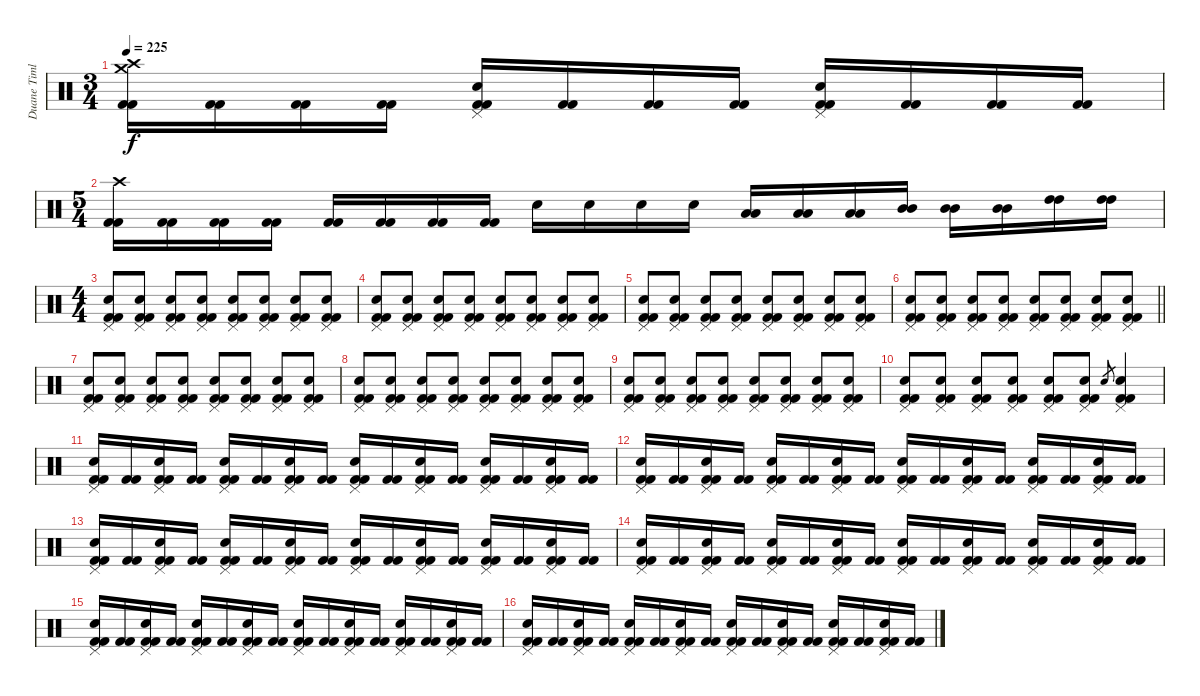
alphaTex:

\track ("Duane Timlin" "Duane Timl") {instrument percussion}
\staff {score}
\articulation defaults
\ts (3 4)
\tempo 225
\clef neutral
\ks c
("Crash medium (hit)" "Crash high (hit)" "Kick (hit) 2" "Kick (hit) 2").16{dy f} ("Kick (hit) 2" "Kick (hit) 2").16 ("Kick (hit) 2" "Kick (hit) 2").16 ("Kick (hit) 2" "Kick (hit) 2").16 ("Pedal Hi-Hat (hit)" "Electric Snare (hit)" "Kick (hit) 2" "Kick (hit) 2").16 ("Kick (hit) 2" "Kick (hit) 2").16 ("Kick (hit) 2" "Kick (hit) 2").16 ("Kick (hit) 2" "Kick (hit) 2").16 ("Pedal Hi-Hat (hit)" "Electric Snare (hit)" "Kick (hit) 2" "Kick (hit) 2").16 ("Kick (hit) 2" "Kick (hit) 2").16 ("Kick (hit) 2" "Kick (hit) 2").16 ("Kick (hit) 2" "Kick (hit) 2").16 |
\ts (5 4)
("Crash high (hit)" "Kick (hit) 2" "Kick (hit) 2").16 ("Kick (hit) 2" "Kick (hit) 2").16 ("Kick (hit) 2" "Kick (hit) 2").16 ("Kick (hit) 2" "Kick (hit) 2").16 ("Kick (hit) 2" "Kick (hit) 2").16 ("Kick (hit) 2" "Kick (hit) 2").16 ("Kick (hit) 2" "Kick (hit) 2").16 ("Kick (hit) 2" "Kick (hit) 2").16 "Electric Snare (hit)".16 "Electric Snare (hit)".16 "Electric Snare (hit)".16 "Electric Snare (hit)".16 ("Low Tom (hit)" "Low Tom (hit)").16 ("Low Tom (hit)" "Low Tom (hit)").16 ("Low Tom (hit)" "Low Tom (hit)").16 ("Mid Tom (hit)" "Mid Tom (hit)").16 ("Mid Tom (hit)" "Mid Tom (hit)").16 ("Mid Tom (hit)" "Mid Tom (hit)").16 ("High Tom (hit)" "High Tom (hit)").16 ("High Tom (hit)" "High Tom (hit)").16 |
\ts (4 4)
("Pedal Hi-Hat (hit)" "Electric Snare (hit)" "Kick (hit) 2" "Kick (hit) 2").8 ("Pedal Hi-Hat (hit)" "Electric Snare (hit)" "Kick (hit) 2" "Kick (hit) 2").8 ("Pedal Hi-Hat (hit)" "Electric Snare (hit)" "Kick (hit) 2" "Kick (hit) 2").8 ("Pedal Hi-Hat (hit)" "Electric Snare (hit)" "Kick (hit) 2" "Kick (hit) 2").8 ("Pedal Hi-Hat (hit)" "Electric Snare (hit)" "Kick (hit) 2" "Kick (hit) 2").8 ("Pedal Hi-Hat (hit)" "Electric Snare (hit)" "Kick (hit) 2" "Kick (hit) 2").8 ("Pedal Hi-Hat (hit)" "Electric Snare (hit)" "Kick (hit) 2" "Kick (hit) 2").8 ("Pedal Hi-Hat (hit)" "Electric Snare (hit)" "Kick (hit) 2" "Kick (hit) 2").8 |
("Pedal Hi-Hat (hit)" "Electric Snare (hit)" "Kick (hit) 2" "Kick (hit) 2").8 ("Pedal Hi-Hat (hit)" "Electric Snare (hit)" "Kick (hit) 2" "Kick (hit) 2").8 ("Pedal Hi-Hat (hit)" "Electric Snare (hit)" "Kick (hit) 2" "Kick (hit) 2").8 ("Pedal Hi-Hat (hit)" "Electric Snare (hit)" "Kick (hit) 2" "Kick (hit) 2").8 ("Pedal Hi-Hat (hit)" "Electric Snare (hit)" "Kick (hit) 2" "Kick (hit) 2").8 ("Pedal Hi-Hat (hit)" "Electric Snare (hit)" "Kick (hit) 2" "Kick (hit) 2").8 ("Pedal Hi-Hat (hit)" "Electric Snare (hit)" "Kick (hit) 2" "Kick (hit) 2").8 ("Pedal Hi-Hat (hit)" "Electric Snare (hit)" "Kick (hit) 2" "Kick (hit) 2").8 |
("Pedal Hi-Hat (hit)" "Electric Snare (hit)" "Kick (hit) 2" "Kick (hit) 2").8 ("Pedal Hi-Hat (hit)" "Electric Snare (hit)" "Kick (hit) 2" "Kick (hit) 2").8 ("Pedal Hi-Hat (hit)" "Electric Snare (hit)" "Kick (hit) 2" "Kick (hit) 2").8 ("Pedal Hi-Hat (hit)" "Electric Snare (hit)" "Kick (hit) 2" "Kick (hit) 2").8 ("Pedal Hi-Hat (hit)" "Electric Snare (hit)" "Kick (hit) 2" "Kick (hit) 2").8 ("Pedal Hi-Hat (hit)" "Electric Snare (hit)" "Kick (hit) 2" "Kick (hit) 2").8 ("Pedal Hi-Hat (hit)" "Electric Snare (hit)" "Kick (hit) 2" "Kick (hit) 2").8 ("Pedal Hi-Hat (hit)" "Electric Snare (hit)" "Kick (hit) 2" "Kick (hit) 2").8 |
\barLineRight lightlight
("Pedal Hi-Hat (hit)" "Electric Snare (hit)" "Kick (hit) 2" "Kick (hit) 2").8 ("Pedal Hi-Hat (hit)" "Electric Snare (hit)" "Kick (hit) 2" "Kick (hit) 2").8 ("Pedal Hi-Hat (hit)" "Electric Snare (hit)" "Kick (hit) 2" "Kick (hit) 2").8 ("Pedal Hi-Hat (hit)" "Electric Snare (hit)" "Kick (hit) 2" "Kick (hit) 2").8 ("Pedal Hi-Hat (hit)" "Electric Snare (hit)" "Kick (hit) 2" "Kick (hit) 2").8 ("Pedal Hi-Hat (hit)" "Electric Snare (hit)" "Kick (hit) 2" "Kick (hit) 2").8 ("Pedal Hi-Hat (hit)" "Electric Snare (hit)" "Kick (hit) 2" "Kick (hit) 2").8 ("Pedal Hi-Hat (hit)" "Electric Snare (hit)" "Kick (hit) 2" "Kick (hit) 2").8 |
("Pedal Hi-Hat (hit)" "Electric Snare (hit)" "Kick (hit) 2" "Kick (hit) 2").8 ("Pedal Hi-Hat (hit)" "Electric Snare (hit)" "Kick (hit) 2" "Kick (hit) 2").8 ("Pedal Hi-Hat (hit)" "Electric Snare (hit)" "Kick (hit) 2" "Kick (hit) 2").8 ("Pedal Hi-Hat (hit)" "Electric Snare (hit)" "Kick (hit) 2" "Kick (hit) 2").8 ("Pedal Hi-Hat (hit)" "Electric Snare (hit)" "Kick (hit) 2" "Kick (hit) 2").8 ("Pedal Hi-Hat (hit)" "Electric Snare (hit)" "Kick (hit) 2" "Kick (hit) 2").8 ("Pedal Hi-Hat (hit)" "Electric Snare (hit)" "Kick (hit) 2" "Kick (hit) 2").8 ("Pedal Hi-Hat (hit)" "Electric Snare (hit)" "Kick (hit) 2" "Kick (hit) 2").8 |
("Pedal Hi-Hat (hit)" "Electric Snare (hit)" "Kick (hit) 2" "Kick (hit) 2").8 ("Pedal Hi-Hat (hit)" "Electric Snare (hit)" "Kick (hit) 2" "Kick (hit) 2").8 ("Pedal Hi-Hat (hit)" "Electric Snare (hit)" "Kick (hit) 2" "Kick (hit) 2").8 ("Pedal Hi-Hat (hit)" "Electric Snare (hit)" "Kick (hit) 2" "Kick (hit) 2").8 ("Pedal Hi-Hat (hit)" "Electric Snare (hit)" "Kick (hit) 2" "Kick (hit) 2").8 ("Pedal Hi-Hat (hit)" "Electric Snare (hit)" "Kick (hit) 2" "Kick (hit) 2").8 ("Pedal Hi-Hat (hit)" "Electric Snare (hit)" "Kick (hit) 2" "Kick (hit) 2").8 ("Pedal Hi-Hat (hit)" "Electric Snare (hit)" "Kick (hit) 2" "Kick (hit) 2").8 |
("Pedal Hi-Hat (hit)" "Electric Snare (hit)" "Kick (hit) 2" "Kick (hit) 2").8 ("Pedal Hi-Hat (hit)" "Electric Snare (hit)" "Kick (hit) 2" "Kick (hit) 2").8 ("Pedal Hi-Hat (hit)" "Electric Snare (hit)" "Kick (hit) 2" "Kick (hit) 2").8 ("Pedal Hi-Hat (hit)" "Electric Snare (hit)" "Kick (hit) 2" "Kick (hit) 2").8 ("Pedal Hi-Hat (hit)" "Electric Snare (hit)" "Kick (hit) 2" "Kick (hit) 2").8 ("Pedal Hi-Hat (hit)" "Electric Snare (hit)" "Kick (hit) 2" "Kick (hit) 2").8 ("Pedal Hi-Hat (hit)" "Electric Snare (hit)" "Kick (hit) 2" "Kick (hit) 2").8 ("Pedal Hi-Hat (hit)" "Electric Snare (hit)" "Kick (hit) 2" "Kick (hit) 2").8 |
("Pedal Hi-Hat (hit)" "Electric Snare (hit)" "Kick (hit) 2" "Kick (hit) 2").8 ("Pedal Hi-Hat (hit)" "Electric Snare (hit)" "Kick (hit) 2" "Kick (hit) 2").8 ("Pedal Hi-Hat (hit)" "Electric Snare (hit)" "Kick (hit) 2" "Kick (hit) 2").8 ("Pedal Hi-Hat (hit)" "Electric Snare (hit)" "Kick (hit) 2" "Kick (hit) 2").8 ("Pedal Hi-Hat (hit)" "Electric Snare (hit)" "Kick (hit) 2" "Kick (hit) 2").8 ("Pedal Hi-Hat (hit)" "Electric Snare (hit)" "Kick (hit) 2" "Kick (hit) 2").8 "Electric Snare (hit)".8{gr} ("Pedal Hi-Hat (hit)" "Electric Snare (hit)" "Kick (hit) 2" "Kick (hit) 2").4 |
("Pedal Hi-Hat (hit)" "Electric Snare (hit)" "Kick (hit) 2" "Kick (hit) 2").16 ("Kick (hit) 2" "Kick (hit) 2").16 ("Pedal Hi-Hat (hit)" "Electric Snare (hit)" "Kick (hit) 2" "Kick (hit) 2").16 ("Kick (hit) 2" "Kick (hit) 2").16 ("Pedal Hi-Hat (hit)" "Electric Snare (hit)" "Kick (hit) 2" "Kick (hit) 2").16 ("Kick (hit) 2" "Kick (hit) 2").16 ("Pedal Hi-Hat (hit)" "Electric Snare (hit)" "Kick (hit) 2" "Kick (hit) 2").16 ("Kick (hit) 2" "Kick (hit) 2").16 ("Pedal Hi-Hat (hit)" "Electric Snare (hit)" "Kick (hit) 2" "Kick (hit) 2").16 ("Kick (hit) 2" "Kick (hit) 2").16 ("Pedal Hi-Hat (hit)" "Electric Snare (hit)" "Kick (hit) 2" "Kick (hit) 2").16 ("Kick (hit) 2" "Kick (hit) 2").16 ("Pedal Hi-Hat (hit)" "Electric Snare (hit)" "Kick (hit) 2" "Kick (hit) 2").16 ("Kick (hit) 2" "Kick (hit) 2").16 ("Pedal Hi-Hat (hit)" "Electric Snare (hit)" "Kick (hit) 2" "Kick (hit) 2").16 ("Kick (hit) 2" "Kick (hit) 2").16 |
("Pedal Hi-Hat (hit)" "Electric Snare (hit)" "Kick (hit) 2" "Kick (hit) 2").16 ("Kick (hit) 2" "Kick (hit) 2").16 ("Pedal Hi-Hat (hit)" "Electric Snare (hit)" "Kick (hit) 2" "Kick (hit) 2").16 ("Kick (hit) 2" "Kick (hit) 2").16 ("Pedal Hi-Hat (hit)" "Electric Snare (hit)" "Kick (hit) 2" "Kick (hit) 2").16 ("Kick (hit) 2" "Kick (hit) 2").16 ("Pedal Hi-Hat (hit)" "Electric Snare (hit)" "Kick (hit) 2" "Kick (hit) 2").16 ("Kick (hit) 2" "Kick (hit) 2").16 ("Pedal Hi-Hat (hit)" "Electric Snare (hit)" "Kick (hit) 2" "Kick (hit) 2").16 ("Kick (hit) 2" "Kick (hit) 2").16 ("Pedal Hi-Hat (hit)" "Electric Snare (hit)" "Kick (hit) 2" "Kick (hit) 2").16 ("Kick (hit) 2" "Kick (hit) 2").16 ("Pedal Hi-Hat (hit)" "Electric Snare (hit)" "Kick (hit) 2" "Kick (hit) 2").16 ("Kick (hit) 2" "Kick (hit) 2").16 ("Pedal Hi-Hat (hit)" "Electric Snare (hit)" "Kick (hit) 2" "Kick (hit) 2").16 ("Kick (hit) 2" "Kick (hit) 2").16 |
("Pedal Hi-Hat (hit)" "Electric Snare (hit)" "Kick (hit) 2" "Kick (hit) 2").16 ("Kick (hit) 2" "Kick (hit) 2").16 ("Pedal Hi-Hat (hit)" "Electric Snare (hit)" "Kick (hit) 2" "Kick (hit) 2").16 ("Kick (hit) 2" "Kick (hit) 2").16 ("Pedal Hi-Hat (hit)" "Electric Snare (hit)" "Kick (hit) 2" "Kick (hit) 2").16 ("Kick (hit) 2" "Kick (hit) 2").16 ("Pedal Hi-Hat (hit)" "Electric Snare (hit)" "Kick (hit) 2" "Kick (hit) 2").16 ("Kick (hit) 2" "Kick (hit) 2").16 ("Pedal Hi-Hat (hit)" "Electric Snare (hit)" "Kick (hit) 2" "Kick (hit) 2").16 ("Kick (hit) 2" "Kick (hit) 2").16 ("Pedal Hi-Hat (hit)" "Electric Snare (hit)" "Kick (hit) 2" "Kick (hit) 2").16 ("Kick (hit) 2" "Kick (hit) 2").16 ("Pedal Hi-Hat (hit)" "Electric Snare (hit)" "Kick (hit) 2" "Kick (hit) 2").16 ("Kick (hit) 2" "Kick (hit) 2").16 ("Pedal Hi-Hat (hit)" "Electric Snare (hit)" "Kick (hit) 2" "Kick (hit) 2").16 ("Kick (hit) 2" "Kick (hit) 2").16 |
("Pedal Hi-Hat (hit)" "Electric Snare (hit)" "Kick (hit) 2" "Kick (hit) 2").16 ("Kick (hit) 2" "Kick (hit) 2").16 ("Pedal Hi-Hat (hit)" "Electric Snare (hit)" "Kick (hit) 2" "Kick (hit) 2").16 ("Kick (hit) 2" "Kick (hit) 2").16 ("Pedal Hi-Hat (hit)" "Electric Snare (hit)" "Kick (hit) 2" "Kick (hit) 2").16 ("Kick (hit) 2" "Kick (hit) 2").16 ("Pedal Hi-Hat (hit)" "Electric Snare (hit)" "Kick (hit) 2" "Kick (hit) 2").16 ("Kick (hit) 2" "Kick (hit) 2").16 ("Pedal Hi-Hat (hit)" "Electric Snare (hit)" "Kick (hit) 2" "Kick (hit) 2").16 ("Kick (hit) 2" "Kick (hit) 2").16 ("Pedal Hi-Hat (hit)" "Electric Snare (hit)" "Kick (hit) 2" "Kick (hit) 2").16 ("Kick (hit) 2" "Kick (hit) 2").16 ("Pedal Hi-Hat (hit)" "Electric Snare (hit)" "Kick (hit) 2" "Kick (hit) 2").16 ("Kick (hit) 2" "Kick (hit) 2").16 ("Pedal Hi-Hat (hit)" "Electric Snare (hit)" "Kick (hit) 2" "Kick (hit) 2").16 ("Kick (hit) 2" "Kick (hit) 2").16 |
("Pedal Hi-Hat (hit)" "Electric Snare (hit)" "Kick (hit) 2" "Kick (hit) 2").16 ("Kick (hit) 2" "Kick (hit) 2").16 ("Pedal Hi-Hat (hit)" "Electric Snare (hit)" "Kick (hit) 2" "Kick (hit) 2").16 ("Kick (hit) 2" "Kick (hit) 2").16 ("Pedal Hi-Hat (hit)" "Electric Snare (hit)" "Kick (hit) 2" "Kick (hit) 2").16 ("Kick (hit) 2" "Kick (hit) 2").16 ("Pedal Hi-Hat (hit)" "Electric Snare (hit)" "Kick (hit) 2" "Kick (hit) 2").16 ("Kick (hit) 2" "Kick (hit) 2").16 ("Pedal Hi-Hat (hit)" "Electric Snare (hit)" "Kick (hit) 2" "Kick (hit) 2").16 ("Kick (hit) 2" "Kick (hit) 2").16 ("Pedal Hi-Hat (hit)" "Electric Snare (hit)" "Kick (hit) 2" "Kick (hit) 2").16 ("Kick (hit) 2" "Kick (hit) 2").16 ("Pedal Hi-Hat (hit)" "Electric Snare (hit)" "Kick (hit) 2" "Kick (hit) 2").16 ("Kick (hit) 2" "Kick (hit) 2").16 ("Pedal Hi-Hat (hit)" "Electric Snare (hit)" "Kick (hit) 2" "Kick (hit) 2").16 ("Kick (hit) 2" "Kick (hit) 2").16 |
("Pedal Hi-Hat (hit)" "Electric Snare (hit)" "Kick (hit) 2" "Kick (hit) 2").16 ("Kick (hit) 2" "Kick (hit) 2").16 ("Pedal Hi-Hat (hit)" "Electric Snare (hit)" "Kick (hit) 2" "Kick (hit) 2").16 ("Kick (hit) 2" "Kick (hit) 2").16 ("Pedal Hi-Hat (hit)" "Electric Snare (hit)" "Kick (hit) 2" "Kick (hit) 2").16 ("Kick (hit) 2" "Kick (hit) 2").16 ("Pedal Hi-Hat (hit)" "Electric Snare (hit)" "Kick (hit) 2" "Kick (hit) 2").16 ("Kick (hit) 2" "Kick (hit) 2").16 ("Pedal Hi-Hat (hit)" "Electric Snare (hit)" "Kick (hit) 2" "Kick (hit) 2").16 ("Kick (hit) 2" "Kick (hit) 2").16 ("Pedal Hi-Hat (hit)" "Electric Snare (hit)" "Kick (hit) 2" "Kick (hit) 2").16 ("Kick (hit) 2" "Kick (hit) 2").16 ("Pedal Hi-Hat (hit)" "Electric Snare (hit)" "Kick (hit) 2" "Kick (hit) 2").16 ("Kick (hit) 2" "Kick (hit) 2").16 ("Pedal Hi-Hat (hit)" "Electric Snare (hit)" "Kick (hit) 2" "Kick (hit) 2").16 ("Kick (hit) 2" "Kick (hit) 2").16
